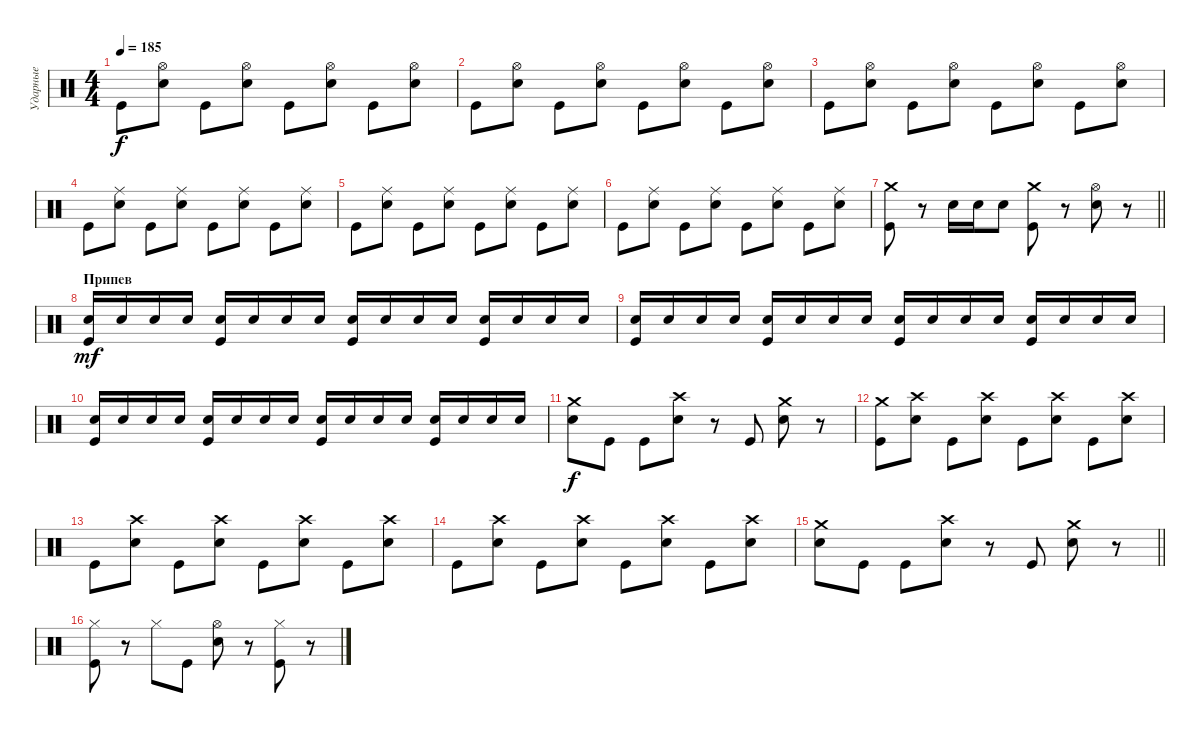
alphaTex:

\track ("Ударные" "Ударные") {instrument percussion}
\staff {score}
\articulation defaults
\ts (4 4)
\tempo 185
\clef neutral
\ks c "Kick (hit)".8{dy f}
("Hi-Hat (open)" "Electric Snare (hit)").8 "Kick (hit)".8 ("Hi-Hat (open)" "Electric Snare (hit)").8 "Kick (hit)".8 ("Hi-Hat (open)" "Electric Snare (hit)").8 "Kick (hit)".8 ("Hi-Hat (open)" "Electric Snare (hit)").8 |
"Kick (hit)".8 ("Hi-Hat (open)" "Electric Snare (hit)").8 "Kick (hit)".8 ("Hi-Hat (open)" "Electric Snare (hit)").8 "Kick (hit)".8 ("Hi-Hat (open)" "Electric Snare (hit)").8 "Kick (hit)".8 ("Hi-Hat (open)" "Electric Snare (hit)").8 |
"Kick (hit)".8 ("Hi-Hat (open)" "Electric Snare (hit)").8 "Kick (hit)".8 ("Hi-Hat (open)" "Electric Snare (hit)").8 "Kick (hit)".8 ("Hi-Hat (open)" "Electric Snare (hit)").8 "Kick (hit)".8 ("Hi-Hat (open)" "Electric Snare (hit)").8 |
"Kick (hit)".8 ("Ride (middle)" "Electric Snare (hit)").8 "Kick (hit)".8 ("Ride (middle)" "Electric Snare (hit)").8 "Kick (hit)".8 ("Ride (middle)" "Electric Snare (hit)").8 "Kick (hit)".8 ("Ride (middle)" "Electric Snare (hit)").8 |
"Kick (hit)".8 ("Ride (middle)" "Electric Snare (hit)").8 "Kick (hit)".8 ("Ride (middle)" "Electric Snare (hit)").8 "Kick (hit)".8 ("Ride (middle)" "Electric Snare (hit)").8 "Kick (hit)".8 ("Ride (middle)" "Electric Snare (hit)").8 |
"Kick (hit)".8 ("Ride (middle)" "Electric Snare (hit)").8 "Kick (hit)".8 ("Ride (middle)" "Electric Snare (hit)").8 "Kick (hit)".8 ("Ride (middle)" "Electric Snare (hit)").8 "Kick (hit)".8 ("Ride (middle)" "Electric Snare (hit)").8 |
\barLineRight lightlight
("Crash medium (hit)" "Kick (hit)").8 r.8 "Electric Snare (hit)".16 "Electric Snare (hit)".16 "Electric Snare (hit)".8 ("Crash medium (hit)" "Kick (hit)").8 r.8 ("Hi-Hat (open)" "Electric Snare (hit)").8 r.8 |
\section ("" "Припев")
("Electric Snare (hit)" "Kick (hit)").16{dy mf} "Electric Snare (hit)".16 "Electric Snare (hit)".16 "Electric Snare (hit)".16 ("Electric Snare (hit)" "Kick (hit)").16 "Electric Snare (hit)".16 "Electric Snare (hit)".16 "Electric Snare (hit)".16 ("Electric Snare (hit)" "Kick (hit)").16 "Electric Snare (hit)".16 "Electric Snare (hit)".16 "Electric Snare (hit)".16 ("Electric Snare (hit)" "Kick (hit)").16 "Electric Snare (hit)".16 "Electric Snare (hit)".16 "Electric Snare (hit)".16 |
("Electric Snare (hit)" "Kick (hit)").16 "Electric Snare (hit)".16 "Electric Snare (hit)".16 "Electric Snare (hit)".16 ("Electric Snare (hit)" "Kick (hit)").16 "Electric Snare (hit)".16 "Electric Snare (hit)".16 "Electric Snare (hit)".16 ("Electric Snare (hit)" "Kick (hit)").16 "Electric Snare (hit)".16 "Electric Snare (hit)".16 "Electric Snare (hit)".16 ("Electric Snare (hit)" "Kick (hit)").16 "Electric Snare (hit)".16 "Electric Snare (hit)".16 "Electric Snare (hit)".16 |
("Electric Snare (hit)" "Kick (hit)").16 "Electric Snare (hit)".16 "Electric Snare (hit)".16 "Electric Snare (hit)".16 ("Electric Snare (hit)" "Kick (hit)").16 "Electric Snare (hit)".16 "Electric Snare (hit)".16 "Electric Snare (hit)".16 ("Electric Snare (hit)" "Kick (hit)").16 "Electric Snare (hit)".16 "Electric Snare (hit)".16 "Electric Snare (hit)".16 ("Electric Snare (hit)" "Kick (hit)").16 "Electric Snare (hit)".16 "Electric Snare (hit)".16 "Electric Snare (hit)".16 |
("Crash medium (hit)" "Electric Snare (hit)").8{dy f} "Kick (hit)".8 "Kick (hit)".8 ("Crash high (hit)" "Electric Snare (hit)").8 r.8 "Kick (hit)".8 ("Crash medium (hit)" "Electric Snare (hit)").8 r.8 |
("Crash medium (hit)" "Kick (hit)").8 ("Crash high (hit)" "Electric Snare (hit)").8 "Kick (hit)".8 ("Crash high (hit)" "Electric Snare (hit)").8 "Kick (hit)".8 ("Crash high (hit)" "Electric Snare (hit)").8 "Kick (hit)".8 ("Crash high (hit)" "Electric Snare (hit)").8 |
"Kick (hit)".8 ("Crash high (hit)" "Electric Snare (hit)").8 "Kick (hit)".8 ("Crash high (hit)" "Electric Snare (hit)").8 "Kick (hit)".8 ("Crash high (hit)" "Electric Snare (hit)").8 "Kick (hit)".8 ("Crash high (hit)" "Electric Snare (hit)").8 |
"Kick (hit)".8 ("Crash high (hit)" "Electric Snare (hit)").8 "Kick (hit)".8 ("Crash high (hit)" "Electric Snare (hit)").8 "Kick (hit)".8 ("Crash high (hit)" "Electric Snare (hit)").8 "Kick (hit)".8 ("Crash high (hit)" "Electric Snare (hit)").8 |
\barLineRight lightlight
("Crash medium (hit)" "Electric Snare (hit)").8 "Kick (hit)".8 "Kick (hit)".8 ("Crash high (hit)" "Electric Snare (hit)").8 r.8 "Kick (hit)".8 ("Crash medium (hit)" "Electric Snare (hit)").8 r.8 |
\section ("" " ")
("Hi-Hat (closed)" "Kick (hit)").8 r.8 "Hi-Hat (closed)".8 "Kick (hit)".8 ("Hi-Hat (open)" "Electric Snare (hit)").8 r.8 ("Hi-Hat (closed)" "Kick (hit)").8 r.8
